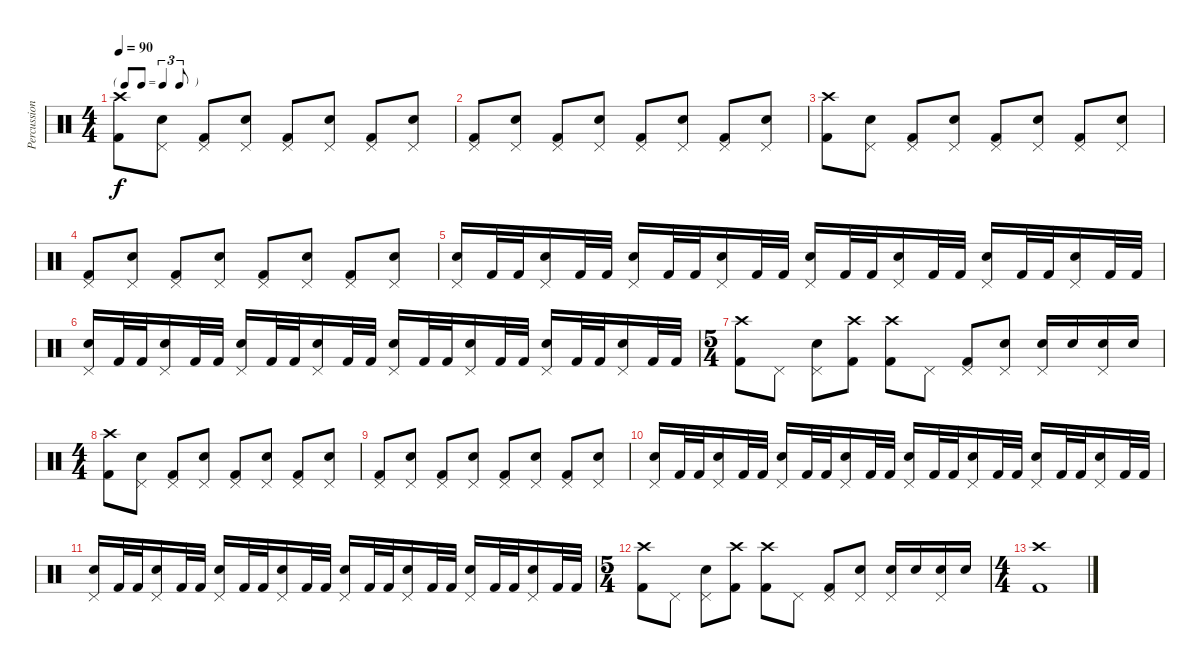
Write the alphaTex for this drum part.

\track ("Percussion" "Percussion") {instrument percussion}
\staff {score}
\articulation defaults
\ts (4 4)
\tf triplet8th
\tempo 90
\clef neutral
\ks c
("Crash high (hit)" "Kick (hit) 2").8{dy f} ("Pedal Hi-Hat (hit)" "Snare (hit) 2").8 ("Pedal Hi-Hat (hit)" "Kick (hit) 2").8 ("Pedal Hi-Hat (hit)" "Snare (hit) 2").8 ("Pedal Hi-Hat (hit)" "Kick (hit) 2").8 ("Pedal Hi-Hat (hit)" "Snare (hit) 2").8 ("Pedal Hi-Hat (hit)" "Kick (hit) 2").8 ("Pedal Hi-Hat (hit)" "Snare (hit) 2").8 |
("Pedal Hi-Hat (hit)" "Kick (hit) 2").8 ("Pedal Hi-Hat (hit)" "Snare (hit) 2").8 ("Pedal Hi-Hat (hit)" "Kick (hit) 2").8 ("Pedal Hi-Hat (hit)" "Snare (hit) 2").8 ("Pedal Hi-Hat (hit)" "Kick (hit) 2").8 ("Pedal Hi-Hat (hit)" "Snare (hit) 2").8 ("Pedal Hi-Hat (hit)" "Kick (hit) 2").8 ("Pedal Hi-Hat (hit)" "Snare (hit) 2").8 |
("Crash high (hit)" "Kick (hit) 2").8 ("Pedal Hi-Hat (hit)" "Snare (hit) 2").8 ("Pedal Hi-Hat (hit)" "Kick (hit) 2").8 ("Pedal Hi-Hat (hit)" "Snare (hit) 2").8 ("Pedal Hi-Hat (hit)" "Kick (hit) 2").8 ("Pedal Hi-Hat (hit)" "Snare (hit) 2").8 ("Pedal Hi-Hat (hit)" "Kick (hit) 2").8 ("Pedal Hi-Hat (hit)" "Snare (hit) 2").8 |
("Pedal Hi-Hat (hit)" "Kick (hit) 2").8 ("Pedal Hi-Hat (hit)" "Snare (hit) 2").8 ("Pedal Hi-Hat (hit)" "Kick (hit) 2").8 ("Pedal Hi-Hat (hit)" "Snare (hit) 2").8 ("Pedal Hi-Hat (hit)" "Kick (hit) 2").8 ("Pedal Hi-Hat (hit)" "Snare (hit) 2").8 ("Pedal Hi-Hat (hit)" "Kick (hit) 2").8 ("Pedal Hi-Hat (hit)" "Snare (hit) 2").8 |
("Pedal Hi-Hat (hit)" "Snare (hit) 2").16 "Kick (hit) 2".32 "Kick (hit) 2".32 ("Pedal Hi-Hat (hit)" "Snare (hit) 2").16 "Kick (hit) 2".32 "Kick (hit) 2".32 ("Pedal Hi-Hat (hit)" "Snare (hit) 2").16 "Kick (hit) 2".32 "Kick (hit) 2".32 ("Pedal Hi-Hat (hit)" "Snare (hit) 2").16 "Kick (hit) 2".32 "Kick (hit) 2".32 ("Pedal Hi-Hat (hit)" "Snare (hit) 2").16 "Kick (hit) 2".32 "Kick (hit) 2".32 ("Pedal Hi-Hat (hit)" "Snare (hit) 2").16 "Kick (hit) 2".32 "Kick (hit) 2".32 ("Pedal Hi-Hat (hit)" "Snare (hit) 2").16 "Kick (hit) 2".32 "Kick (hit) 2".32 ("Pedal Hi-Hat (hit)" "Snare (hit) 2").16 "Kick (hit) 2".32 "Kick (hit) 2".32 |
("Pedal Hi-Hat (hit)" "Snare (hit) 2").16 "Kick (hit) 2".32 "Kick (hit) 2".32 ("Pedal Hi-Hat (hit)" "Snare (hit) 2").16 "Kick (hit) 2".32 "Kick (hit) 2".32 ("Pedal Hi-Hat (hit)" "Snare (hit) 2").16 "Kick (hit) 2".32 "Kick (hit) 2".32 ("Pedal Hi-Hat (hit)" "Snare (hit) 2").16 "Kick (hit) 2".32 "Kick (hit) 2".32 ("Pedal Hi-Hat (hit)" "Snare (hit) 2").16 "Kick (hit) 2".32 "Kick (hit) 2".32 ("Pedal Hi-Hat (hit)" "Snare (hit) 2").16 "Kick (hit) 2".32 "Kick (hit) 2".32 ("Pedal Hi-Hat (hit)" "Snare (hit) 2").16 "Kick (hit) 2".32 "Kick (hit) 2".32 ("Pedal Hi-Hat (hit)" "Snare (hit) 2").16 "Kick (hit) 2".32 "Kick (hit) 2".32 |
\ts (5 4)
("Crash high (hit)" "Kick (hit) 2").8 "Pedal Hi-Hat (hit)".8 ("Pedal Hi-Hat (hit)" "Snare (hit) 2").8 ("Crash high (hit)" "Kick (hit) 2").8 ("Crash high (hit)" "Kick (hit) 2").8 "Pedal Hi-Hat (hit)".8 ("Pedal Hi-Hat (hit)" "Kick (hit) 2").8 ("Pedal Hi-Hat (hit)" "Snare (hit) 2").8 ("Pedal Hi-Hat (hit)" "Snare (hit) 2").16 "Snare (hit) 2".16 ("Pedal Hi-Hat (hit)" "Snare (hit) 2").16 "Snare (hit) 2".16 |
\ts (4 4)
("Crash high (hit)" "Kick (hit) 2").8 ("Pedal Hi-Hat (hit)" "Snare (hit) 2").8 ("Pedal Hi-Hat (hit)" "Kick (hit) 2").8 ("Pedal Hi-Hat (hit)" "Snare (hit) 2").8 ("Pedal Hi-Hat (hit)" "Kick (hit) 2").8 ("Pedal Hi-Hat (hit)" "Snare (hit) 2").8 ("Pedal Hi-Hat (hit)" "Kick (hit) 2").8 ("Pedal Hi-Hat (hit)" "Snare (hit) 2").8 |
("Pedal Hi-Hat (hit)" "Kick (hit) 2").8 ("Pedal Hi-Hat (hit)" "Snare (hit) 2").8 ("Pedal Hi-Hat (hit)" "Kick (hit) 2").8 ("Pedal Hi-Hat (hit)" "Snare (hit) 2").8 ("Pedal Hi-Hat (hit)" "Kick (hit) 2").8 ("Pedal Hi-Hat (hit)" "Snare (hit) 2").8 ("Pedal Hi-Hat (hit)" "Kick (hit) 2").8 ("Pedal Hi-Hat (hit)" "Snare (hit) 2").8 |
("Pedal Hi-Hat (hit)" "Snare (hit) 2").16 "Kick (hit) 2".32 "Kick (hit) 2".32 ("Pedal Hi-Hat (hit)" "Snare (hit) 2").16 "Kick (hit) 2".32 "Kick (hit) 2".32 ("Pedal Hi-Hat (hit)" "Snare (hit) 2").16 "Kick (hit) 2".32 "Kick (hit) 2".32 ("Pedal Hi-Hat (hit)" "Snare (hit) 2").16 "Kick (hit) 2".32 "Kick (hit) 2".32 ("Pedal Hi-Hat (hit)" "Snare (hit) 2").16 "Kick (hit) 2".32 "Kick (hit) 2".32 ("Pedal Hi-Hat (hit)" "Snare (hit) 2").16 "Kick (hit) 2".32 "Kick (hit) 2".32 ("Pedal Hi-Hat (hit)" "Snare (hit) 2").16 "Kick (hit) 2".32 "Kick (hit) 2".32 ("Pedal Hi-Hat (hit)" "Snare (hit) 2").16 "Kick (hit) 2".32 "Kick (hit) 2".32 |
("Pedal Hi-Hat (hit)" "Snare (hit) 2").16 "Kick (hit) 2".32 "Kick (hit) 2".32 ("Pedal Hi-Hat (hit)" "Snare (hit) 2").16 "Kick (hit) 2".32 "Kick (hit) 2".32 ("Pedal Hi-Hat (hit)" "Snare (hit) 2").16 "Kick (hit) 2".32 "Kick (hit) 2".32 ("Pedal Hi-Hat (hit)" "Snare (hit) 2").16 "Kick (hit) 2".32 "Kick (hit) 2".32 ("Pedal Hi-Hat (hit)" "Snare (hit) 2").16 "Kick (hit) 2".32 "Kick (hit) 2".32 ("Pedal Hi-Hat (hit)" "Snare (hit) 2").16 "Kick (hit) 2".32 "Kick (hit) 2".32 ("Pedal Hi-Hat (hit)" "Snare (hit) 2").16 "Kick (hit) 2".32 "Kick (hit) 2".32 ("Pedal Hi-Hat (hit)" "Snare (hit) 2").16 "Kick (hit) 2".32 "Kick (hit) 2".32 |
\ts (5 4)
("Crash high (hit)" "Kick (hit) 2").8 "Pedal Hi-Hat (hit)".8 ("Pedal Hi-Hat (hit)" "Snare (hit) 2").8 ("Crash high (hit)" "Kick (hit) 2").8 ("Crash high (hit)" "Kick (hit) 2").8 "Pedal Hi-Hat (hit)".8 ("Pedal Hi-Hat (hit)" "Kick (hit) 2").8 ("Pedal Hi-Hat (hit)" "Snare (hit) 2").8 ("Pedal Hi-Hat (hit)" "Snare (hit) 2").16 "Snare (hit) 2".16 ("Pedal Hi-Hat (hit)" "Snare (hit) 2").16 "Snare (hit) 2".16 |
\ts (4 4)
("Crash high (hit)" "Kick (hit) 2").1
